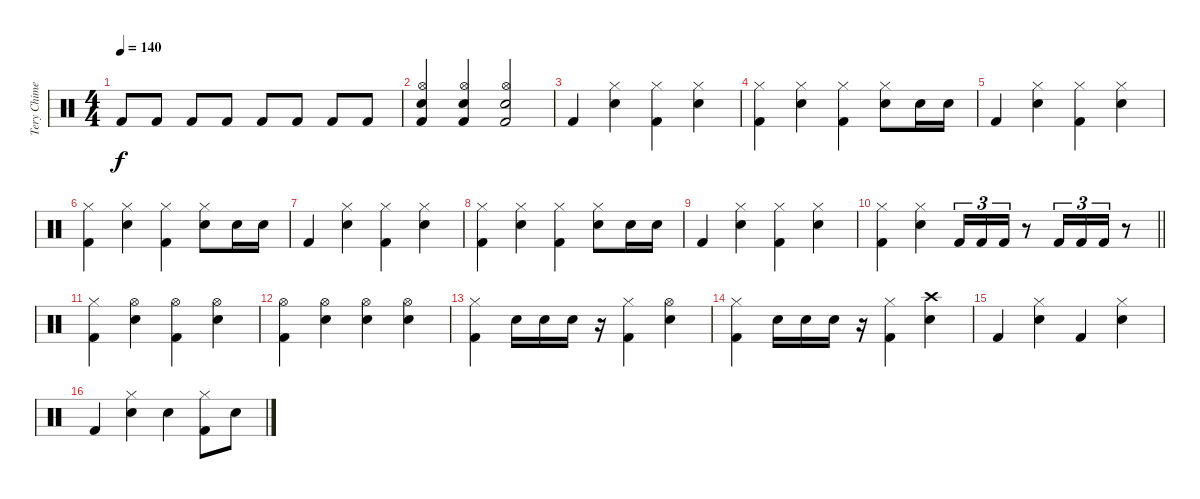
\track ("Tery Chimes" "Tery Chime") {instrument percussion}
\staff {score}
\articulation defaults
\ts (4 4)
\tempo 140
\clef neutral
\ks c "Kick (hit) 2".8{dy f} "Kick (hit) 2".8 "Kick (hit) 2".8 "Kick (hit) 2".8 "Kick (hit) 2".8 "Kick (hit) 2".8 "Kick (hit) 2".8 "Kick (hit) 2".8
|
("Hi-Hat (open)" "Electric Snare (hit)" "Kick (hit) 2").4 ("Hi-Hat (open)" "Electric Snare (hit)" "Kick (hit) 2").4 ("Hi-Hat (open)" "Electric Snare (hit)" "Kick (hit) 2").2 |
"Kick (hit) 2".4 ("Hi-Hat (closed)" "Electric Snare (hit)").4 ("Hi-Hat (closed)" "Kick (hit) 2").4 ("Hi-Hat (closed)" "Electric Snare (hit)").4 |
("Hi-Hat (closed)" "Kick (hit) 2").4 ("Hi-Hat (closed)" "Electric Snare (hit)").4 ("Hi-Hat (closed)" "Kick (hit) 2").4 ("Hi-Hat (closed)" "Electric Snare (hit)").8 "Electric Snare (hit)".16 "Electric Snare (hit)".16 |
"Kick (hit) 2".4 ("Hi-Hat (closed)" "Electric Snare (hit)").4 ("Hi-Hat (closed)" "Kick (hit) 2").4 ("Hi-Hat (closed)" "Electric Snare (hit)").4 |
("Hi-Hat (closed)" "Kick (hit) 2").4 ("Hi-Hat (closed)" "Electric Snare (hit)").4 ("Hi-Hat (closed)" "Kick (hit) 2").4 ("Hi-Hat (closed)" "Electric Snare (hit)").8 "Electric Snare (hit)".16 "Electric Snare (hit)".16 |
"Kick (hit) 2".4 ("Hi-Hat (closed)" "Electric Snare (hit)").4 ("Hi-Hat (closed)" "Kick (hit) 2").4 ("Hi-Hat (closed)" "Electric Snare (hit)").4 |
("Hi-Hat (closed)" "Kick (hit) 2").4 ("Hi-Hat (closed)" "Electric Snare (hit)").4 ("Hi-Hat (closed)" "Kick (hit) 2").4 ("Hi-Hat (closed)" "Electric Snare (hit)").8 "Electric Snare (hit)".16 "Electric Snare (hit)".16 |
"Kick (hit) 2".4 ("Hi-Hat (closed)" "Electric Snare (hit)").4 ("Hi-Hat (closed)" "Kick (hit) 2").4 ("Hi-Hat (closed)" "Electric Snare (hit)").4 |
\barLineRight lightlight
("Hi-Hat (closed)" "Kick (hit) 2").4 ("Hi-Hat (closed)" "Electric Snare (hit)").4 "Kick (hit) 2".16{tu (3 2)} "Kick (hit) 2".16{tu (3 2)} "Kick (hit) 2".16{tu (3 2)} r.8 "Kick (hit) 2".16{tu (3 2)} "Kick (hit) 2".16{tu (3 2)} "Kick (hit) 2".16{tu (3 2)} r.8 |
("Hi-Hat (closed)" "Kick (hit) 2").4 ("Hi-Hat (open)" "Electric Snare (hit)").4 ("Hi-Hat (open)" "Kick (hit) 2").4 ("Hi-Hat (open)" "Electric Snare (hit)").4 |
("Hi-Hat (open)" "Kick (hit) 2").4 ("Hi-Hat (open)" "Electric Snare (hit)").4 ("Hi-Hat (open)" "Electric Snare (hit)").4 ("Hi-Hat (open)" "Electric Snare (hit)").4 |
("Hi-Hat (closed)" "Kick (hit) 2").4 "Electric Snare (hit)".16 "Electric Snare (hit)".16 "Electric Snare (hit)".16 r.16 ("Hi-Hat (closed)" "Kick (hit) 2").4 ("Hi-Hat (open)" "Electric Snare (hit)").4 |
("Hi-Hat (closed)" "Kick (hit) 2").4 "Electric Snare (hit)".16 "Electric Snare (hit)".16 "Electric Snare (hit)".16 r.16 ("Hi-Hat (closed)" "Kick (hit) 2").4 ("Crash high (hit)" "Electric Snare (hit)").4 |
"Kick (hit) 2".4 ("Hi-Hat (closed)" "Electric Snare (hit)").4 "Kick (hit) 2".4 ("Hi-Hat (closed)" "Electric Snare (hit)").4 |
"Kick (hit) 2".4 ("Hi-Hat (closed)" "Electric Snare (hit)").4 "Electric Snare (hit)".4 ("Hi-Hat (closed)" "Kick (hit) 2").8 "Electric Snare (hit)".8
